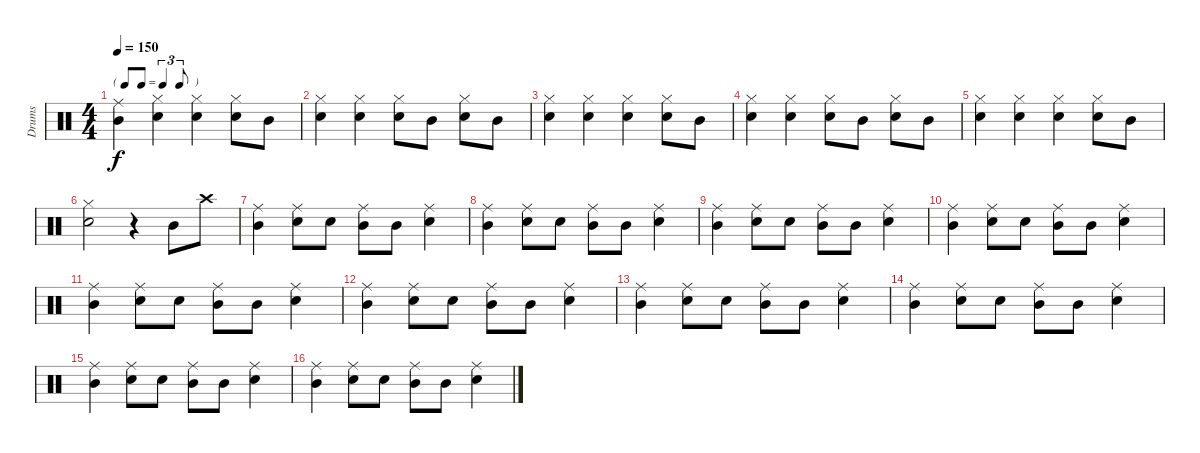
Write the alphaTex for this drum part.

\track ("Drums" "Drums") {instrument percussion}
\staff {score}
\articulation defaults
\ts (4 4)
\tf triplet8th
\tempo 150
\clef neutral
\ks c
("Mid Tom (hit)" "Ride (middle)").4{dy f} ("Snare (hit) 2" "Hi-Hat (closed)").4 ("Snare (hit) 2" "Hi-Hat (closed)").4 ("Snare (hit) 2" "Hi-Hat (closed)").8 "Mid Tom (hit)".8 |
("Snare (hit) 2" "Hi-Hat (closed)").4 ("Snare (hit) 2" "Hi-Hat (closed)").4 ("Snare (hit) 2" "Hi-Hat (closed)").8 "Mid Tom (hit)".8 ("Snare (hit) 2" "Hi-Hat (closed)").8 "Mid Tom (hit)".8 |
("Snare (hit) 2" "Hi-Hat (closed)").4 ("Snare (hit) 2" "Hi-Hat (closed)").4 ("Snare (hit) 2" "Hi-Hat (closed)").4 ("Snare (hit) 2" "Hi-Hat (closed)").8 "Mid Tom (hit)".8 |
("Snare (hit) 2" "Hi-Hat (closed)").4 ("Snare (hit) 2" "Hi-Hat (closed)").4 ("Snare (hit) 2" "Hi-Hat (closed)").8 "Mid Tom (hit)".8 ("Snare (hit) 2" "Hi-Hat (closed)").8 "Mid Tom (hit)".8 |
("Snare (hit) 2" "Hi-Hat (closed)").4 ("Snare (hit) 2" "Hi-Hat (closed)").4 ("Snare (hit) 2" "Hi-Hat (closed)").4 ("Snare (hit) 2" "Hi-Hat (closed)").8 "Mid Tom (hit)".8 |
("Snare (hit) 2" "Hi-Hat (closed)").2 r.4 "Mid Tom (hit)".8 "Crash high (hit)".8 |
("Mid Tom (hit)" "Ride (middle)").4 ("Snare (hit) 2" "Ride (middle)").8 "Snare (hit) 2".8 ("Mid Tom (hit)" "Ride (middle)").8 "Mid Tom (hit)".8 ("Snare (hit) 2" "Ride (middle)").4 |
("Mid Tom (hit)" "Ride (middle)").4 ("Snare (hit) 2" "Ride (middle)").8 "Snare (hit) 2".8 ("Mid Tom (hit)" "Ride (middle)").8 "Mid Tom (hit)".8 ("Snare (hit) 2" "Ride (middle)").4 |
("Mid Tom (hit)" "Ride (middle)").4 ("Snare (hit) 2" "Ride (middle)").8 "Snare (hit) 2".8 ("Mid Tom (hit)" "Ride (middle)").8 "Mid Tom (hit)".8 ("Snare (hit) 2" "Ride (middle)").4 |
("Mid Tom (hit)" "Ride (middle)").4 ("Snare (hit) 2" "Ride (middle)").8 "Snare (hit) 2".8 ("Mid Tom (hit)" "Ride (middle)").8 "Mid Tom (hit)".8 ("Snare (hit) 2" "Ride (middle)").4 |
("Mid Tom (hit)" "Ride (middle)").4 ("Snare (hit) 2" "Ride (middle)").8 "Snare (hit) 2".8 ("Mid Tom (hit)" "Ride (middle)").8 "Mid Tom (hit)".8 ("Snare (hit) 2" "Ride (middle)").4 |
("Mid Tom (hit)" "Ride (middle)").4 ("Snare (hit) 2" "Ride (middle)").8 "Snare (hit) 2".8 ("Mid Tom (hit)" "Ride (middle)").8 "Mid Tom (hit)".8 ("Snare (hit) 2" "Ride (middle)").4 |
("Mid Tom (hit)" "Ride (middle)").4 ("Snare (hit) 2" "Ride (middle)").8 "Snare (hit) 2".8 ("Mid Tom (hit)" "Ride (middle)").8 "Mid Tom (hit)".8 ("Snare (hit) 2" "Ride (middle)").4 |
("Mid Tom (hit)" "Ride (middle)").4 ("Snare (hit) 2" "Ride (middle)").8 "Snare (hit) 2".8 ("Mid Tom (hit)" "Ride (middle)").8 "Mid Tom (hit)".8 ("Snare (hit) 2" "Ride (middle)").4 |
("Mid Tom (hit)" "Ride (middle)").4 ("Snare (hit) 2" "Ride (middle)").8 "Snare (hit) 2".8 ("Mid Tom (hit)" "Ride (middle)").8 "Mid Tom (hit)".8 ("Snare (hit) 2" "Ride (middle)").4 |
("Mid Tom (hit)" "Ride (middle)").4 ("Snare (hit) 2" "Ride (middle)").8 "Snare (hit) 2".8 ("Mid Tom (hit)" "Ride (middle)").8 "Mid Tom (hit)".8 ("Snare (hit) 2" "Ride (middle)").4
